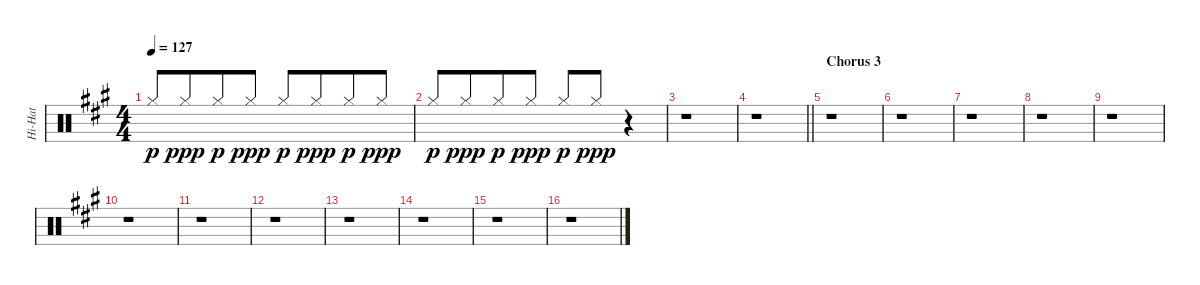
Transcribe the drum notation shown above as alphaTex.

\track ("Hi-Hat" "Hi-Hat") {instrument percussion}
\staff {score}
\articulation defaults
\ts (4 4)
\tempo 127
\clef neutral
\ks a "Hi-Hat (closed)".8{dy p beam Up} "Hi-Hat (closed)".8{dy ppp beam Up beam merge} "Hi-Hat (closed)".8{dy p beam Up} "Hi-Hat (closed)".8{dy ppp beam Up} "Hi-Hat (closed)".8{dy p beam Up} "Hi-Hat (closed)".8{dy ppp beam Up beam merge} "Hi-Hat (closed)".8{dy p beam Up} "Hi-Hat (closed)".8{dy ppp beam Up}
|
"Hi-Hat (closed)".8{dy p beam Up} "Hi-Hat (closed)".8{dy ppp beam Up beam merge} "Hi-Hat (closed)".8{dy p beam Up} "Hi-Hat (closed)".8{dy ppp beam Up} "Hi-Hat (closed)".8{dy p beam Up} "Hi-Hat (closed)".8{dy ppp beam Up} r.4{volume 0} |
r.1 |
\barLineRight lightlight
r.1 |
\section ("" "Chorus 3")
r.1 |
r.1 |
r.1 |
r.1 |
r.1 |
r.1 |
r.1 |
r.1 |
r.1 |
r.1 |
r.1 |
r.1
